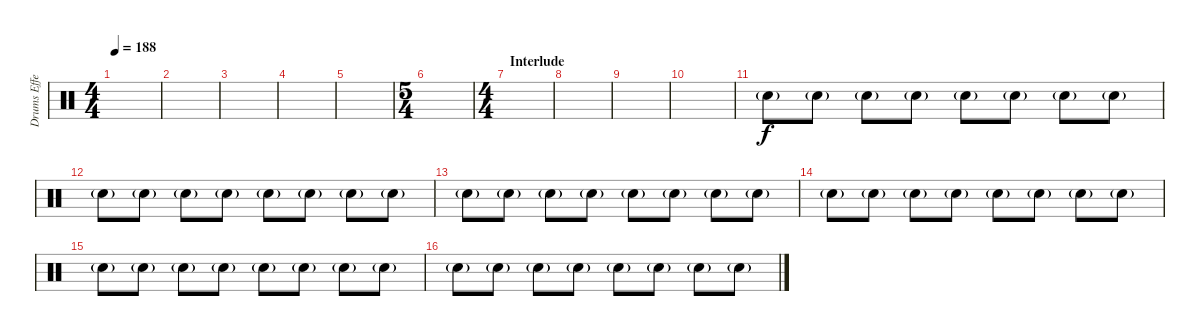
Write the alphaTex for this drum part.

\track ("Drums Effects" "Drums Effe") {instrument percussion}
\staff {score}
\articulation defaults
\ts (4 4)
\tempo 188
\clef neutral
\ks c
|
|
|
|
|
\ts (5 4)
|
\ts (4 4)
\section ("" "Interlude")
|
|
|
|
"Snare (hit) 2"{g}.8 "Snare (hit) 2"{g}.8 "Snare (hit) 2"{g}.8 "Snare (hit) 2"{g}.8 "Snare (hit) 2"{g}.8 "Snare (hit) 2"{g}.8 "Snare (hit) 2"{g}.8 "Snare (hit) 2"{g}.8 |
"Snare (hit) 2"{g}.8 "Snare (hit) 2"{g}.8 "Snare (hit) 2"{g}.8 "Snare (hit) 2"{g}.8 "Snare (hit) 2"{g}.8 "Snare (hit) 2"{g}.8 "Snare (hit) 2"{g}.8 "Snare (hit) 2"{g}.8 |
"Snare (hit) 2"{g}.8 "Snare (hit) 2"{g}.8 "Snare (hit) 2"{g}.8 "Snare (hit) 2"{g}.8 "Snare (hit) 2"{g}.8 "Snare (hit) 2"{g}.8 "Snare (hit) 2"{g}.8 "Snare (hit) 2"{g}.8 |
"Snare (hit) 2"{g}.8 "Snare (hit) 2"{g}.8 "Snare (hit) 2"{g}.8 "Snare (hit) 2"{g}.8 "Snare (hit) 2"{g}.8 "Snare (hit) 2"{g}.8 "Snare (hit) 2"{g}.8 "Snare (hit) 2"{g}.8 |
"Snare (hit) 2"{g}.8 "Snare (hit) 2"{g}.8 "Snare (hit) 2"{g}.8 "Snare (hit) 2"{g}.8 "Snare (hit) 2"{g}.8 "Snare (hit) 2"{g}.8 "Snare (hit) 2"{g}.8 "Snare (hit) 2"{g}.8 |
"Snare (hit) 2"{g}.8 "Snare (hit) 2"{g}.8 "Snare (hit) 2"{g}.8 "Snare (hit) 2"{g}.8 "Snare (hit) 2"{g}.8 "Snare (hit) 2"{g}.8 "Snare (hit) 2"{g}.8 "Snare (hit) 2"{g}.8
